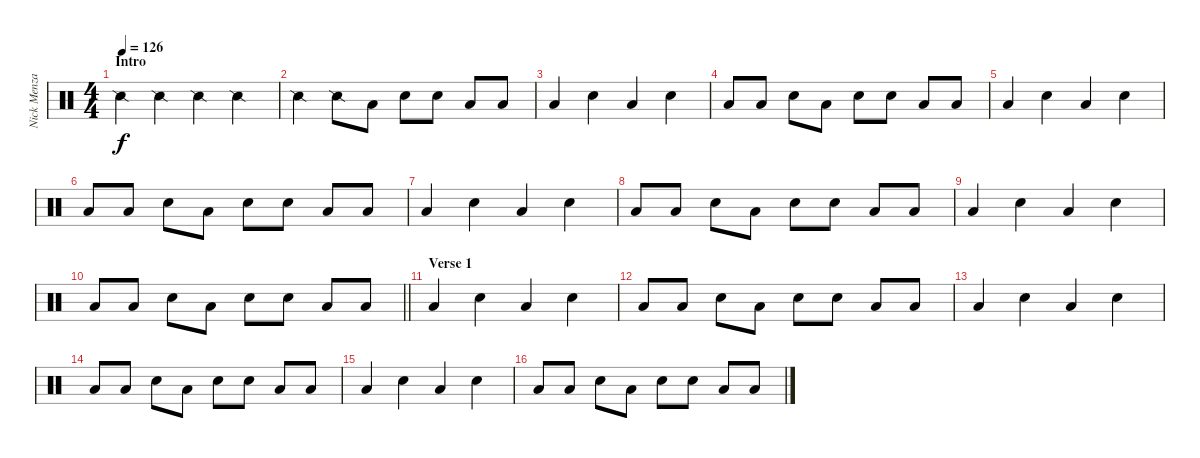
\track ("Nick Menza" "Nick Menza") {instrument percussion}
\staff {score}
\articulation defaults
\ts (4 4)
\section ("" "Intro")
\tempo 126
\clef neutral
\ks c "Snare (side stick) 2".4{dy f} "Snare (side stick) 2".4 "Snare (side stick) 2".4 "Snare (side stick) 2".4
|
"Snare (side stick) 2".4 "Snare (side stick) 2".8 "Low Tom (hit)".8 "Electric Snare (hit)".8 "Electric Snare (hit)".8 "Low Tom (hit)".8 "Low Tom (hit)".8 |
"Low Tom (hit)".4 "Electric Snare (hit)".4 "Low Tom (hit)".4 "Electric Snare (hit)".4 |
"Low Tom (hit)".8 "Low Tom (hit)".8 "Electric Snare (hit)".8 "Low Tom (hit)".8 "Electric Snare (hit)".8 "Electric Snare (hit)".8 "Low Tom (hit)".8 "Low Tom (hit)".8 |
"Low Tom (hit)".4 "Electric Snare (hit)".4 "Low Tom (hit)".4 "Electric Snare (hit)".4 |
"Low Tom (hit)".8 "Low Tom (hit)".8 "Electric Snare (hit)".8 "Low Tom (hit)".8 "Electric Snare (hit)".8 "Electric Snare (hit)".8 "Low Tom (hit)".8 "Low Tom (hit)".8 |
"Low Tom (hit)".4 "Electric Snare (hit)".4 "Low Tom (hit)".4 "Electric Snare (hit)".4 |
"Low Tom (hit)".8 "Low Tom (hit)".8 "Electric Snare (hit)".8 "Low Tom (hit)".8 "Electric Snare (hit)".8 "Electric Snare (hit)".8 "Low Tom (hit)".8 "Low Tom (hit)".8 |
"Low Tom (hit)".4 "Electric Snare (hit)".4 "Low Tom (hit)".4 "Electric Snare (hit)".4 |
\barLineRight lightlight "Low Tom (hit)".8 "Low Tom (hit)".8 "Electric Snare (hit)".8 "Low Tom (hit)".8 "Electric Snare (hit)".8 "Electric Snare (hit)".8 "Low Tom (hit)".8 "Low Tom (hit)".8
|
\section ("" "Verse 1")
"Low Tom (hit)".4 "Electric Snare (hit)".4 "Low Tom (hit)".4 "Electric Snare (hit)".4 |
"Low Tom (hit)".8 "Low Tom (hit)".8 "Electric Snare (hit)".8 "Low Tom (hit)".8 "Electric Snare (hit)".8 "Electric Snare (hit)".8 "Low Tom (hit)".8 "Low Tom (hit)".8 |
"Low Tom (hit)".4 "Electric Snare (hit)".4 "Low Tom (hit)".4 "Electric Snare (hit)".4 |
"Low Tom (hit)".8 "Low Tom (hit)".8 "Electric Snare (hit)".8 "Low Tom (hit)".8 "Electric Snare (hit)".8 "Electric Snare (hit)".8 "Low Tom (hit)".8 "Low Tom (hit)".8 |
"Low Tom (hit)".4 "Electric Snare (hit)".4 "Low Tom (hit)".4 "Electric Snare (hit)".4 |
"Low Tom (hit)".8 "Low Tom (hit)".8 "Electric Snare (hit)".8 "Low Tom (hit)".8 "Electric Snare (hit)".8 "Electric Snare (hit)".8 "Low Tom (hit)".8 "Low Tom (hit)".8
